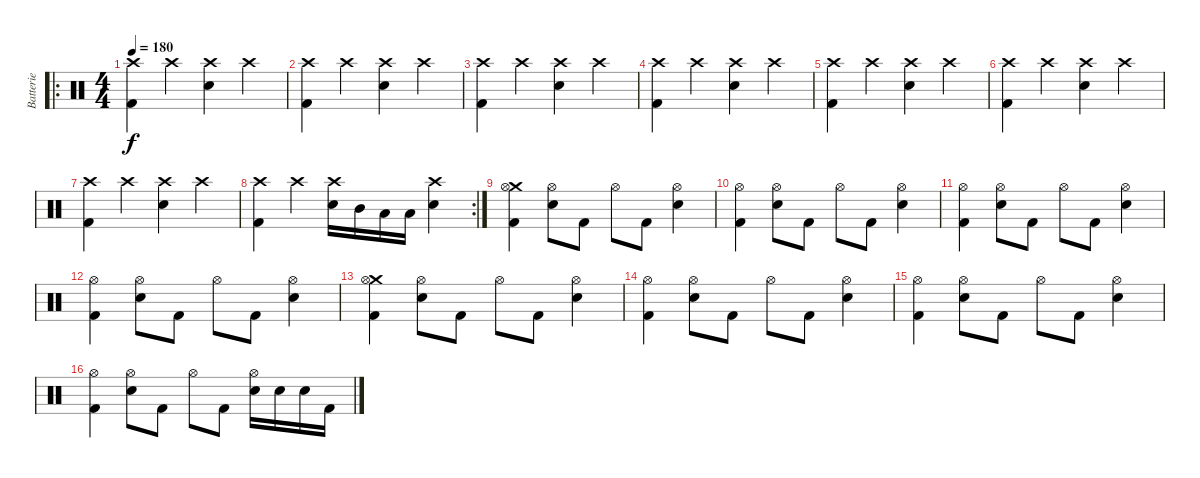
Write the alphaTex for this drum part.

\track ("Batterie" "Batterie") {instrument percussion}
\staff {score}
\articulation defaults
\ro
\ts (4 4)
\tempo 180
\clef neutral
\ks c
("Crash high (hit)" "Kick (hit) 2").4{dy f} "Crash high (hit)".4 ("Crash high (hit)" "Electric Snare (hit)").4 "Crash high (hit)".4 |
("Crash high (hit)" "Kick (hit) 2").4 "Crash high (hit)".4 ("Crash high (hit)" "Electric Snare (hit)").4 "Crash high (hit)".4 |
("Crash high (hit)" "Kick (hit) 2").4 "Crash high (hit)".4 ("Crash high (hit)" "Electric Snare (hit)").4 "Crash high (hit)".4 |
("Crash high (hit)" "Kick (hit) 2").4 "Crash high (hit)".4 ("Crash high (hit)" "Electric Snare (hit)").4 "Crash high (hit)".4 |
("Crash high (hit)" "Kick (hit) 2").4 "Crash high (hit)".4 ("Crash high (hit)" "Electric Snare (hit)").4 "Crash high (hit)".4 |
("Crash high (hit)" "Kick (hit) 2").4 "Crash high (hit)".4 ("Crash high (hit)" "Electric Snare (hit)").4 "Crash high (hit)".4 |
("Crash high (hit)" "Kick (hit) 2").4 "Crash high (hit)".4 ("Crash high (hit)" "Electric Snare (hit)").4 "Crash high (hit)".4 |
\rc 2
("Crash high (hit)" "Kick (hit) 2").4 "Crash high (hit)".4 ("Crash high (hit)" "Electric Snare (hit)").16 "Mid Tom (hit)".16 "Low Tom (hit)".16 "Low Floor Tom (hit)".16 ("Crash high (hit)" "Electric Snare (hit)").4 |
("Crash medium (hit)" "Hi-Hat (open)" "Kick (hit) 2").4 ("Hi-Hat (open)" "Electric Snare (hit)").8 "Kick (hit) 2".8 "Hi-Hat (open)".8 "Kick (hit) 2".8 ("Hi-Hat (open)" "Electric Snare (hit)").4 |
("Hi-Hat (open)" "Kick (hit) 2").4 ("Hi-Hat (open)" "Electric Snare (hit)").8 "Kick (hit) 2".8 "Hi-Hat (open)".8 "Kick (hit) 2".8 ("Hi-Hat (open)" "Electric Snare (hit)").4 |
("Hi-Hat (open)" "Kick (hit) 2").4 ("Hi-Hat (open)" "Electric Snare (hit)").8 "Kick (hit) 2".8 "Hi-Hat (open)".8 "Kick (hit) 2".8 ("Hi-Hat (open)" "Electric Snare (hit)").4 |
("Hi-Hat (open)" "Kick (hit) 2").4 ("Hi-Hat (open)" "Electric Snare (hit)").8 "Kick (hit) 2".8 "Hi-Hat (open)".8 "Kick (hit) 2".8 ("Hi-Hat (open)" "Electric Snare (hit)").4 |
("Crash medium (hit)" "Hi-Hat (open)" "Kick (hit) 2").4 ("Hi-Hat (open)" "Electric Snare (hit)").8 "Kick (hit) 2".8 "Hi-Hat (open)".8 "Kick (hit) 2".8 ("Hi-Hat (open)" "Electric Snare (hit)").4 |
("Hi-Hat (open)" "Kick (hit) 2").4 ("Hi-Hat (open)" "Electric Snare (hit)").8 "Kick (hit) 2".8 "Hi-Hat (open)".8 "Kick (hit) 2".8 ("Hi-Hat (open)" "Electric Snare (hit)").4 |
("Hi-Hat (open)" "Kick (hit) 2").4 ("Hi-Hat (open)" "Electric Snare (hit)").8 "Kick (hit) 2".8 "Hi-Hat (open)".8 "Kick (hit) 2".8 ("Hi-Hat (open)" "Electric Snare (hit)").4 |
("Hi-Hat (open)" "Kick (hit) 2").4 ("Hi-Hat (open)" "Electric Snare (hit)").8 "Kick (hit) 2".8 "Hi-Hat (open)".8 "Kick (hit) 2".8 ("Hi-Hat (open)" "Electric Snare (hit)").16 "Electric Snare (hit)".16 "Electric Snare (hit)".16 "Kick (hit) 2".16
